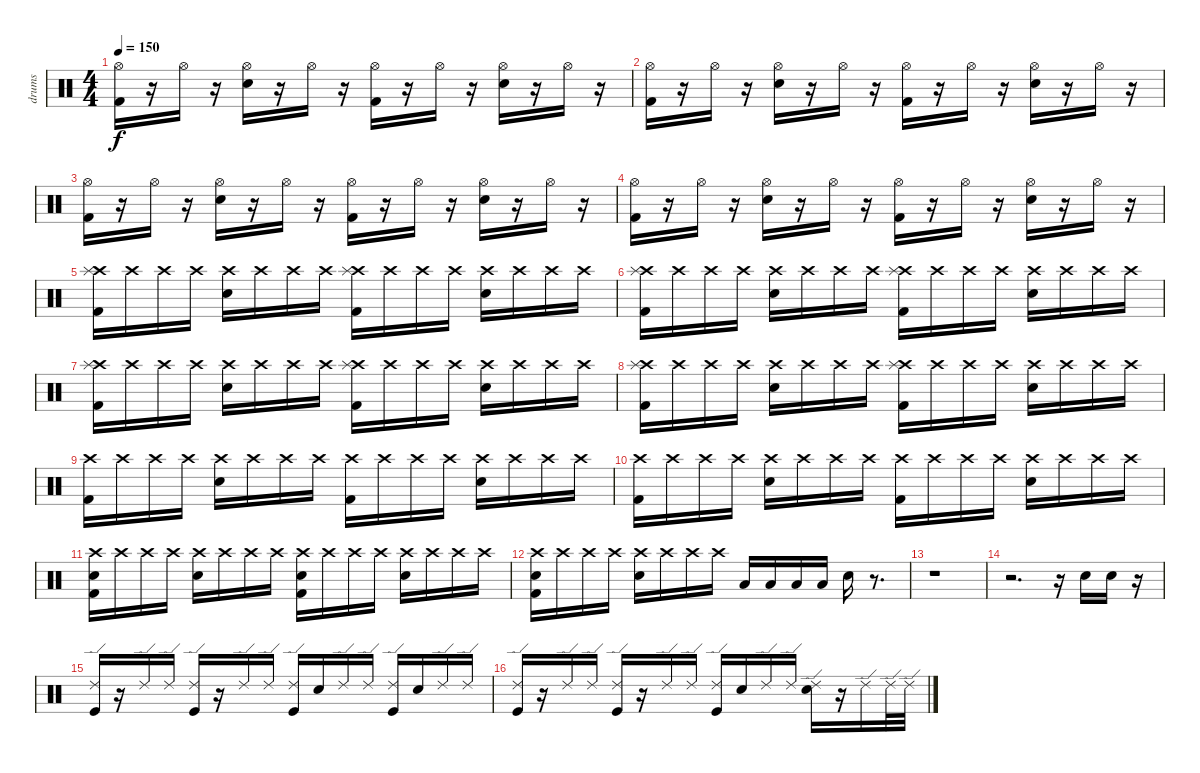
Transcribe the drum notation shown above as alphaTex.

\track ("drums" "drums") {instrument percussion}
\staff {score}
\articulation defaults
\ts (4 4)
\tempo 150
\clef neutral
\ks c
("Kick (hit) 2" "Hi-Hat (open)").16{dy f} r.16 "Hi-Hat (open)".16 r.16 ("Electric Snare (hit)" "Hi-Hat (open)").16 r.16 "Hi-Hat (open)".16 r.16 ("Kick (hit) 2" "Hi-Hat (open)").16 r.16 "Hi-Hat (open)".16 r.16 ("Electric Snare (hit)" "Hi-Hat (open)").16 r.16 "Hi-Hat (open)".16 r.16 |
("Kick (hit) 2" "Hi-Hat (open)").16 r.16 "Hi-Hat (open)".16 r.16 ("Electric Snare (hit)" "Hi-Hat (open)").16 r.16 "Hi-Hat (open)".16 r.16 ("Kick (hit) 2" "Hi-Hat (open)").16 r.16 "Hi-Hat (open)".16 r.16 ("Electric Snare (hit)" "Hi-Hat (open)").16 r.16 "Hi-Hat (open)".16 r.16 |
("Kick (hit) 2" "Hi-Hat (open)").16 r.16 "Hi-Hat (open)".16 r.16 ("Electric Snare (hit)" "Hi-Hat (open)").16 r.16 "Hi-Hat (open)".16 r.16 ("Kick (hit) 2" "Hi-Hat (open)").16 r.16 "Hi-Hat (open)".16 r.16 ("Electric Snare (hit)" "Hi-Hat (open)").16 r.16 "Hi-Hat (open)".16 r.16 |
("Kick (hit) 2" "Hi-Hat (open)").16 r.16 "Hi-Hat (open)".16 r.16 ("Electric Snare (hit)" "Hi-Hat (open)").16 r.16 "Hi-Hat (open)".16 r.16 ("Kick (hit) 2" "Hi-Hat (open)").16 r.16 "Hi-Hat (open)".16 r.16 ("Electric Snare (hit)" "Hi-Hat (open)").16 r.16 "Hi-Hat (open)".16 r.16 |
("Kick (hit) 2" "Crash high (hit)" "Splash (hit)").16 "Crash high (hit)".16 "Crash high (hit)".16 "Crash high (hit)".16 ("Electric Snare (hit)" "Crash high (hit)").16 "Crash high (hit)".16 "Crash high (hit)".16 "Crash high (hit)".16 ("Kick (hit) 2" "Crash high (hit)" "Splash (hit)").16 "Crash high (hit)".16 "Crash high (hit)".16 "Crash high (hit)".16 ("Electric Snare (hit)" "Crash high (hit)").16 "Crash high (hit)".16 "Crash high (hit)".16 "Crash high (hit)".16 |
("Kick (hit) 2" "Crash high (hit)" "Splash (hit)").16 "Crash high (hit)".16 "Crash high (hit)".16 "Crash high (hit)".16 ("Electric Snare (hit)" "Crash high (hit)").16 "Crash high (hit)".16 "Crash high (hit)".16 "Crash high (hit)".16 ("Kick (hit) 2" "Crash high (hit)" "Splash (hit)").16 "Crash high (hit)".16 "Crash high (hit)".16 "Crash high (hit)".16 ("Electric Snare (hit)" "Crash high (hit)").16 "Crash high (hit)".16 "Crash high (hit)".16 "Crash high (hit)".16 |
("Kick (hit) 2" "Crash high (hit)" "Splash (hit)").16 "Crash high (hit)".16 "Crash high (hit)".16 "Crash high (hit)".16 ("Electric Snare (hit)" "Crash high (hit)").16 "Crash high (hit)".16 "Crash high (hit)".16 "Crash high (hit)".16 ("Kick (hit) 2" "Crash high (hit)" "Splash (hit)").16 "Crash high (hit)".16 "Crash high (hit)".16 "Crash high (hit)".16 ("Electric Snare (hit)" "Crash high (hit)").16 "Crash high (hit)".16 "Crash high (hit)".16 "Crash high (hit)".16 |
("Kick (hit) 2" "Crash high (hit)" "Splash (hit)").16 "Crash high (hit)".16 "Crash high (hit)".16 "Crash high (hit)".16 ("Electric Snare (hit)" "Crash high (hit)").16 "Crash high (hit)".16 "Crash high (hit)".16 "Crash high (hit)".16 ("Kick (hit) 2" "Crash high (hit)" "Splash (hit)").16 "Crash high (hit)".16 "Crash high (hit)".16 "Crash high (hit)".16 ("Electric Snare (hit)" "Crash high (hit)").16 "Crash high (hit)".16 "Crash high (hit)".16 "Crash high (hit)".16 |
("Kick (hit) 2" "Crash high (hit)").16 "Crash high (hit)".16 "Crash high (hit)".16 "Crash high (hit)".16 ("Electric Snare (hit)" "Crash high (hit)").16 "Crash high (hit)".16 "Crash high (hit)".16 "Crash high (hit)".16 ("Kick (hit) 2" "Crash high (hit)").16 "Crash high (hit)".16 "Crash high (hit)".16 "Crash high (hit)".16 ("Electric Snare (hit)" "Crash high (hit)").16 "Crash high (hit)".16 "Crash high (hit)".16 "Crash high (hit)".16 |
("Kick (hit) 2" "Crash high (hit)").16 "Crash high (hit)".16 "Crash high (hit)".16 "Crash high (hit)".16 ("Electric Snare (hit)" "Crash high (hit)").16 "Crash high (hit)".16 "Crash high (hit)".16 "Crash high (hit)".16 ("Kick (hit) 2" "Crash high (hit)").16 "Crash high (hit)".16 "Crash high (hit)".16 "Crash high (hit)".16 ("Electric Snare (hit)" "Crash high (hit)").16 "Crash high (hit)".16 "Crash high (hit)".16 "Crash high (hit)".16 |
("Kick (hit) 2" "Electric Snare (hit)" "Crash high (hit)").16 "Crash high (hit)".16 "Crash high (hit)".16 "Crash high (hit)".16 ("Electric Snare (hit)" "Crash high (hit)").16 "Crash high (hit)".16 "Crash high (hit)".16 "Crash high (hit)".16 ("Kick (hit) 2" "Electric Snare (hit)" "Crash high (hit)").16 "Crash high (hit)".16 "Crash high (hit)".16 "Crash high (hit)".16 ("Electric Snare (hit)" "Crash high (hit)").16 "Crash high (hit)".16 "Crash high (hit)".16 "Crash high (hit)".16 |
("Kick (hit) 2" "Electric Snare (hit)" "Crash high (hit)").16 "Crash high (hit)".16 "Crash high (hit)".16 "Crash high (hit)".16 ("Electric Snare (hit)" "Crash high (hit)").16 "Crash high (hit)".16 "Crash high (hit)".16 "Crash high (hit)".16 "Low Tom (hit)".16 "Low Tom (hit)".16 "Low Tom (hit)".16 "Low Tom (hit)".16 "Electric Snare (hit)".16 r.8{d} |
r.1 |
r.2{d} r.16 "Snare (hit) 2".16 "Snare (hit) 2".16 r.16 |
("Kick (hit)" "Ride (edge) 2").16 r.16 "Ride (edge) 2".16 "Ride (edge) 2".16 ("Kick (hit)" "Ride (edge) 2").16 r.16 "Ride (edge) 2".16 "Ride (edge) 2".16 ("Kick (hit)" "Ride (edge) 2").16 "Snare (hit) 2".16 "Ride (edge) 2".16 "Ride (edge) 2".16 ("Kick (hit)" "Ride (edge) 2").16 "Snare (hit) 2".16 "Ride (edge) 2".16 "Ride (edge) 2".16 |
("Kick (hit)" "Ride (edge) 2").16 r.16 "Ride (edge) 2".16 "Ride (edge) 2".16 ("Kick (hit)" "Ride (edge) 2").16 r.16 "Ride (edge) 2".16 "Ride (edge) 2".16 ("Kick (hit)" "Ride (edge) 2").16 "Snare (hit) 2".16 "Ride (edge) 2".16 "Ride (edge) 2".16 ("Snare (hit) 2" "Ride (edge) 2").16 r.16 "Ride (edge) 2".16 "Ride (edge) 2".32 "Ride (edge) 2".32
